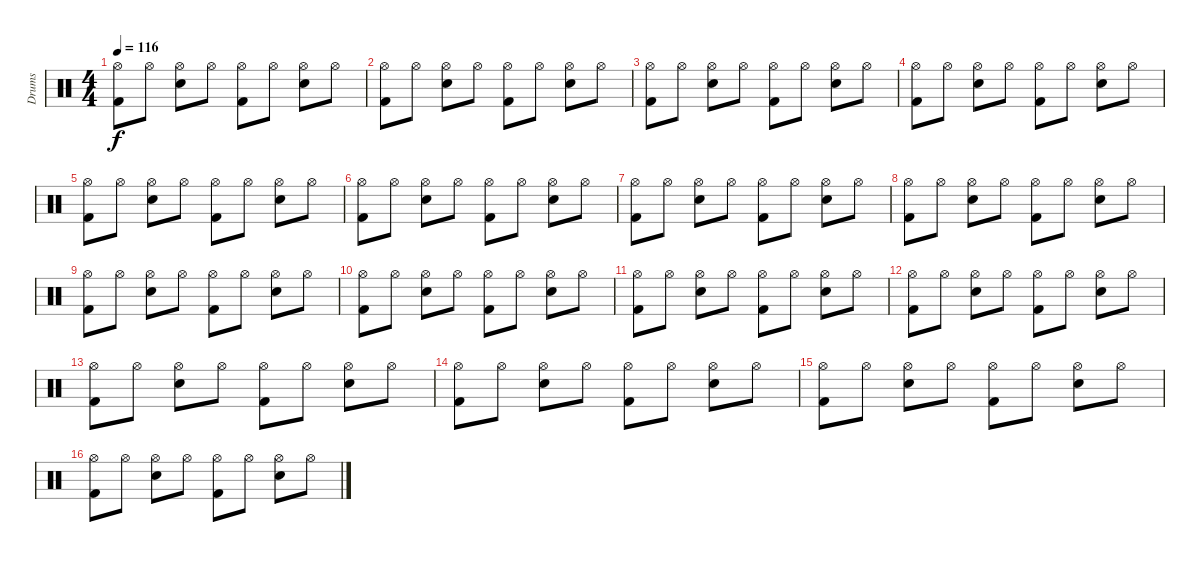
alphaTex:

\track ("Drums" "Drums") {instrument percussion}
\staff {score}
\articulation defaults
\ts (4 4)
\tempo 116
\clef neutral
\ks c
("Hi-Hat (open)" "Kick (hit) 2").8{dy f} "Hi-Hat (open)".8 ("Hi-Hat (open)" "Electric Snare (hit)").8 "Hi-Hat (open)".8 ("Hi-Hat (open)" "Kick (hit) 2").8 "Hi-Hat (open)".8 ("Hi-Hat (open)" "Electric Snare (hit)").8 "Hi-Hat (open)".8 |
("Hi-Hat (open)" "Kick (hit) 2").8 "Hi-Hat (open)".8 ("Hi-Hat (open)" "Electric Snare (hit)").8 "Hi-Hat (open)".8 ("Hi-Hat (open)" "Kick (hit) 2").8 "Hi-Hat (open)".8 ("Hi-Hat (open)" "Electric Snare (hit)").8 "Hi-Hat (open)".8 |
("Hi-Hat (open)" "Kick (hit) 2").8 "Hi-Hat (open)".8 ("Hi-Hat (open)" "Electric Snare (hit)").8 "Hi-Hat (open)".8 ("Hi-Hat (open)" "Kick (hit) 2").8 "Hi-Hat (open)".8 ("Hi-Hat (open)" "Electric Snare (hit)").8 "Hi-Hat (open)".8 |
("Hi-Hat (open)" "Kick (hit) 2").8 "Hi-Hat (open)".8 ("Hi-Hat (open)" "Electric Snare (hit)").8 "Hi-Hat (open)".8 ("Hi-Hat (open)" "Kick (hit) 2").8 "Hi-Hat (open)".8 ("Hi-Hat (open)" "Electric Snare (hit)").8 "Hi-Hat (open)".8 |
("Hi-Hat (open)" "Kick (hit) 2").8 "Hi-Hat (open)".8 ("Hi-Hat (open)" "Electric Snare (hit)").8 "Hi-Hat (open)".8 ("Hi-Hat (open)" "Kick (hit) 2").8 "Hi-Hat (open)".8 ("Hi-Hat (open)" "Electric Snare (hit)").8 "Hi-Hat (open)".8 |
("Hi-Hat (open)" "Kick (hit) 2").8 "Hi-Hat (open)".8 ("Hi-Hat (open)" "Electric Snare (hit)").8 "Hi-Hat (open)".8 ("Hi-Hat (open)" "Kick (hit) 2").8 "Hi-Hat (open)".8 ("Hi-Hat (open)" "Electric Snare (hit)").8 "Hi-Hat (open)".8 |
("Hi-Hat (open)" "Kick (hit) 2").8 "Hi-Hat (open)".8 ("Hi-Hat (open)" "Electric Snare (hit)").8 "Hi-Hat (open)".8 ("Hi-Hat (open)" "Kick (hit) 2").8 "Hi-Hat (open)".8 ("Hi-Hat (open)" "Electric Snare (hit)").8 "Hi-Hat (open)".8 |
("Hi-Hat (open)" "Kick (hit) 2").8 "Hi-Hat (open)".8 ("Hi-Hat (open)" "Electric Snare (hit)").8 "Hi-Hat (open)".8 ("Hi-Hat (open)" "Kick (hit) 2").8 "Hi-Hat (open)".8 ("Hi-Hat (open)" "Electric Snare (hit)").8 "Hi-Hat (open)".8 |
("Hi-Hat (open)" "Kick (hit) 2").8 "Hi-Hat (open)".8 ("Hi-Hat (open)" "Electric Snare (hit)").8 "Hi-Hat (open)".8 ("Hi-Hat (open)" "Kick (hit) 2").8 "Hi-Hat (open)".8 ("Hi-Hat (open)" "Electric Snare (hit)").8 "Hi-Hat (open)".8 |
("Hi-Hat (open)" "Kick (hit) 2").8 "Hi-Hat (open)".8 ("Hi-Hat (open)" "Electric Snare (hit)").8 "Hi-Hat (open)".8 ("Hi-Hat (open)" "Kick (hit) 2").8 "Hi-Hat (open)".8 ("Hi-Hat (open)" "Electric Snare (hit)").8 "Hi-Hat (open)".8 |
("Hi-Hat (open)" "Kick (hit) 2").8 "Hi-Hat (open)".8 ("Hi-Hat (open)" "Electric Snare (hit)").8 "Hi-Hat (open)".8 ("Hi-Hat (open)" "Kick (hit) 2").8 "Hi-Hat (open)".8 ("Hi-Hat (open)" "Electric Snare (hit)").8 "Hi-Hat (open)".8 |
("Hi-Hat (open)" "Kick (hit) 2").8 "Hi-Hat (open)".8 ("Hi-Hat (open)" "Electric Snare (hit)").8 "Hi-Hat (open)".8 ("Hi-Hat (open)" "Kick (hit) 2").8 "Hi-Hat (open)".8 ("Hi-Hat (open)" "Electric Snare (hit)").8 "Hi-Hat (open)".8 |
("Hi-Hat (open)" "Kick (hit) 2").8 "Hi-Hat (open)".8 ("Hi-Hat (open)" "Electric Snare (hit)").8 "Hi-Hat (open)".8 ("Hi-Hat (open)" "Kick (hit) 2").8 "Hi-Hat (open)".8 ("Hi-Hat (open)" "Electric Snare (hit)").8 "Hi-Hat (open)".8 |
("Hi-Hat (open)" "Kick (hit) 2").8 "Hi-Hat (open)".8 ("Hi-Hat (open)" "Electric Snare (hit)").8 "Hi-Hat (open)".8 ("Hi-Hat (open)" "Kick (hit) 2").8 "Hi-Hat (open)".8 ("Hi-Hat (open)" "Electric Snare (hit)").8 "Hi-Hat (open)".8 |
("Hi-Hat (open)" "Kick (hit) 2").8 "Hi-Hat (open)".8 ("Hi-Hat (open)" "Electric Snare (hit)").8 "Hi-Hat (open)".8 ("Hi-Hat (open)" "Kick (hit) 2").8 "Hi-Hat (open)".8 ("Hi-Hat (open)" "Electric Snare (hit)").8 "Hi-Hat (open)".8 |
("Hi-Hat (open)" "Kick (hit) 2").8 "Hi-Hat (open)".8 ("Hi-Hat (open)" "Electric Snare (hit)").8 "Hi-Hat (open)".8 ("Hi-Hat (open)" "Kick (hit) 2").8 "Hi-Hat (open)".8 ("Hi-Hat (open)" "Electric Snare (hit)").8 "Hi-Hat (open)".8
